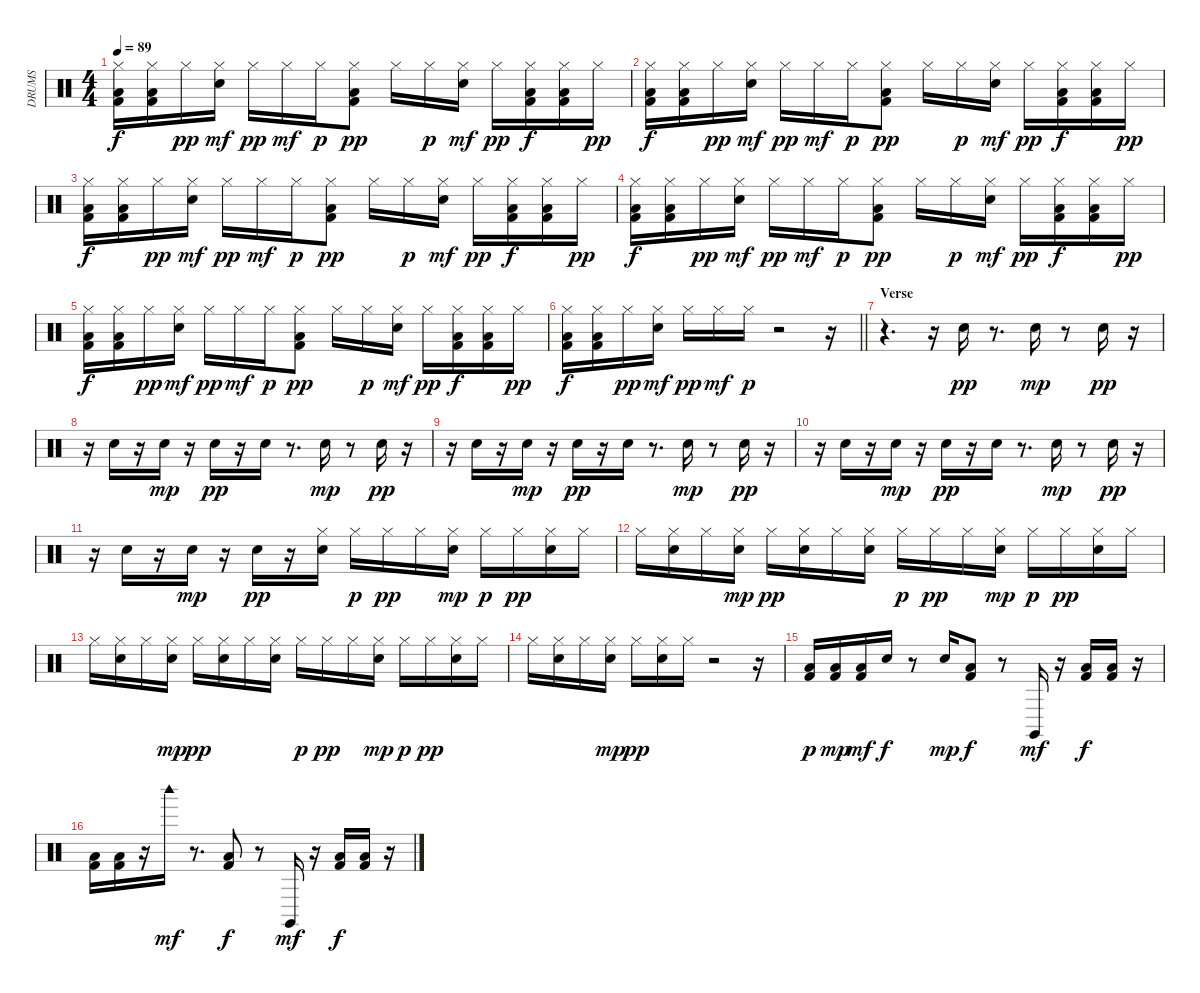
\track ("DRUMS" "DRUMS") {instrument percussion}
\staff {score}
\articulation defaults
\ts (4 4)
\tempo 89
\clef neutral
\ks c
("Kick (hit) 2" "Low Floor Tom (hit)" "Hi-Hat (closed)").16{dy f} ("Kick (hit) 2" "Low Floor Tom (hit)" "Hi-Hat (closed)").16 "Hi-Hat (closed)".16{dy pp} ("Hand Clap (hit)" "Hi-Hat (closed)").16{dy mf} "Hi-Hat (closed)".16{dy pp} "Hi-Hat (closed)".16{dy mf} "Hi-Hat (closed)".16{dy p} ("Hi-Hat (closed)" "Kick (hit) 2" "Low Floor Tom (hit)").8{dy pp} "Hi-Hat (closed)".16 "Hi-Hat (closed)".16{dy p} ("Hand Clap (hit)" "Hi-Hat (closed)").16{dy mf} "Hi-Hat (closed)".16{dy pp} ("Kick (hit) 2" "Low Floor Tom (hit)" "Hi-Hat (closed)").16{dy f} ("Kick (hit) 2" "Low Floor Tom (hit)" "Hi-Hat (closed)").16 "Hi-Hat (closed)".16{dy pp} |
("Kick (hit) 2" "Low Floor Tom (hit)" "Hi-Hat (closed)").16{dy f} ("Kick (hit) 2" "Low Floor Tom (hit)" "Hi-Hat (closed)").16 "Hi-Hat (closed)".16{dy pp} ("Hand Clap (hit)" "Hi-Hat (closed)").16{dy mf} "Hi-Hat (closed)".16{dy pp} "Hi-Hat (closed)".16{dy mf} "Hi-Hat (closed)".16{dy p} ("Hi-Hat (closed)" "Kick (hit) 2" "Low Floor Tom (hit)").8{dy pp} "Hi-Hat (closed)".16 "Hi-Hat (closed)".16{dy p} ("Hand Clap (hit)" "Hi-Hat (closed)").16{dy mf} "Hi-Hat (closed)".16{dy pp} ("Kick (hit) 2" "Low Floor Tom (hit)" "Hi-Hat (closed)").16{dy f} ("Kick (hit) 2" "Low Floor Tom (hit)" "Hi-Hat (closed)").16 "Hi-Hat (closed)".16{dy pp} |
("Kick (hit) 2" "Low Floor Tom (hit)" "Hi-Hat (closed)").16{dy f} ("Kick (hit) 2" "Low Floor Tom (hit)" "Hi-Hat (closed)").16 "Hi-Hat (closed)".16{dy pp} ("Hand Clap (hit)" "Hi-Hat (closed)").16{dy mf} "Hi-Hat (closed)".16{dy pp} "Hi-Hat (closed)".16{dy mf} "Hi-Hat (closed)".16{dy p} ("Hi-Hat (closed)" "Kick (hit) 2" "Low Floor Tom (hit)").8{dy pp} "Hi-Hat (closed)".16 "Hi-Hat (closed)".16{dy p} ("Hand Clap (hit)" "Hi-Hat (closed)").16{dy mf} "Hi-Hat (closed)".16{dy pp} ("Kick (hit) 2" "Low Floor Tom (hit)" "Hi-Hat (closed)").16{dy f} ("Kick (hit) 2" "Low Floor Tom (hit)" "Hi-Hat (closed)").16 "Hi-Hat (closed)".16{dy pp} |
("Kick (hit) 2" "Low Floor Tom (hit)" "Hi-Hat (closed)").16{dy f} ("Kick (hit) 2" "Low Floor Tom (hit)" "Hi-Hat (closed)").16 "Hi-Hat (closed)".16{dy pp} ("Hand Clap (hit)" "Hi-Hat (closed)").16{dy mf} "Hi-Hat (closed)".16{dy pp} "Hi-Hat (closed)".16{dy mf} "Hi-Hat (closed)".16{dy p} ("Hi-Hat (closed)" "Kick (hit) 2" "Low Floor Tom (hit)").8{dy pp} "Hi-Hat (closed)".16 "Hi-Hat (closed)".16{dy p} ("Hand Clap (hit)" "Hi-Hat (closed)").16{dy mf} "Hi-Hat (closed)".16{dy pp} ("Kick (hit) 2" "Low Floor Tom (hit)" "Hi-Hat (closed)").16{dy f} ("Kick (hit) 2" "Low Floor Tom (hit)" "Hi-Hat (closed)").16 "Hi-Hat (closed)".16{dy pp} |
("Kick (hit) 2" "Low Floor Tom (hit)" "Hi-Hat (closed)").16{dy f} ("Kick (hit) 2" "Low Floor Tom (hit)" "Hi-Hat (closed)").16 "Hi-Hat (closed)".16{dy pp} ("Hand Clap (hit)" "Hi-Hat (closed)").16{dy mf} "Hi-Hat (closed)".16{dy pp} "Hi-Hat (closed)".16{dy mf} "Hi-Hat (closed)".16{dy p} ("Hi-Hat (closed)" "Kick (hit) 2" "Low Floor Tom (hit)").8{dy pp} "Hi-Hat (closed)".16 "Hi-Hat (closed)".16{dy p} ("Hand Clap (hit)" "Hi-Hat (closed)").16{dy mf} "Hi-Hat (closed)".16{dy pp} ("Kick (hit) 2" "Low Floor Tom (hit)" "Hi-Hat (closed)").16{dy f} ("Kick (hit) 2" "Low Floor Tom (hit)" "Hi-Hat (closed)").16 "Hi-Hat (closed)".16{dy pp} |
\barLineRight lightlight
("Kick (hit) 2" "Low Floor Tom (hit)" "Hi-Hat (closed)").16{dy f} ("Kick (hit) 2" "Low Floor Tom (hit)" "Hi-Hat (closed)").16 "Hi-Hat (closed)".16{dy pp} ("Hand Clap (hit)" "Hi-Hat (closed)").16{dy mf} "Hi-Hat (closed)".16{dy pp} "Hi-Hat (closed)".16{dy mf} "Hi-Hat (closed)".16{dy p} r.2 r.16 |
\section ("" "Verse")
r.4{d} r.16 "Electric Snare (hit)".16{dy pp} r.8{d} "Hand Clap (hit)".16{dy mp} r.8 "Electric Snare (hit)".16{dy pp} r.16 |
r.16 "Electric Snare (hit)".16 r.16 "Hand Clap (hit)".16{dy mp} r.16 "Electric Snare (hit)".16{dy pp} r.16 "Electric Snare (hit)".16 r.8{d} "Hand Clap (hit)".16{dy mp} r.8 "Electric Snare (hit)".16{dy pp} r.16 |
r.16 "Electric Snare (hit)".16 r.16 "Hand Clap (hit)".16{dy mp} r.16 "Electric Snare (hit)".16{dy pp} r.16 "Electric Snare (hit)".16 r.8{d} "Hand Clap (hit)".16{dy mp} r.8 "Electric Snare (hit)".16{dy pp} r.16 |
r.16 "Electric Snare (hit)".16 r.16 "Hand Clap (hit)".16{dy mp} r.16 "Electric Snare (hit)".16{dy pp} r.16 "Electric Snare (hit)".16 r.8{d} "Hand Clap (hit)".16{dy mp} r.8 "Electric Snare (hit)".16{dy pp} r.16 |
r.16 "Electric Snare (hit)".16 r.16 "Hand Clap (hit)".16{dy mp} r.16 "Electric Snare (hit)".16{dy pp} r.16 ("Electric Snare (hit)" "Hi-Hat (closed)").16 "Hi-Hat (closed)".16{dy p} "Hi-Hat (closed)".16{dy pp} "Hi-Hat (closed)".16 ("Hand Clap (hit)" "Hi-Hat (closed)").16{dy mp} "Hi-Hat (closed)".16{dy p} "Hi-Hat (closed)".16{dy pp} ("Electric Snare (hit)" "Hi-Hat (closed)").16 "Hi-Hat (closed)".16 |
"Hi-Hat (closed)".16 ("Electric Snare (hit)" "Hi-Hat (closed)").16 "Hi-Hat (closed)".16 ("Hand Clap (hit)" "Hi-Hat (closed)").16{dy mp} "Hi-Hat (closed)".16{dy pp} ("Electric Snare (hit)" "Hi-Hat (closed)").16 "Hi-Hat (closed)".16 ("Electric Snare (hit)" "Hi-Hat (closed)").16 "Hi-Hat (closed)".16{dy p} "Hi-Hat (closed)".16{dy pp} "Hi-Hat (closed)".16 ("Hand Clap (hit)" "Hi-Hat (closed)").16{dy mp} "Hi-Hat (closed)".16{dy p} "Hi-Hat (closed)".16{dy pp} ("Electric Snare (hit)" "Hi-Hat (closed)").16 "Hi-Hat (closed)".16 |
"Hi-Hat (closed)".16 ("Electric Snare (hit)" "Hi-Hat (closed)").16 "Hi-Hat (closed)".16 ("Hand Clap (hit)" "Hi-Hat (closed)").16{dy mp} "Hi-Hat (closed)".16{dy pp} ("Electric Snare (hit)" "Hi-Hat (closed)").16 "Hi-Hat (closed)".16 ("Electric Snare (hit)" "Hi-Hat (closed)").16 "Hi-Hat (closed)".16{dy p} "Hi-Hat (closed)".16{dy pp} "Hi-Hat (closed)".16 ("Hand Clap (hit)" "Hi-Hat (closed)").16{dy mp} "Hi-Hat (closed)".16{dy p} "Hi-Hat (closed)".16{dy pp} ("Electric Snare (hit)" "Hi-Hat (closed)").16 "Hi-Hat (closed)".16 |
"Hi-Hat (closed)".16 ("Electric Snare (hit)" "Hi-Hat (closed)").16 "Hi-Hat (closed)".16 ("Hand Clap (hit)" "Hi-Hat (closed)").16{dy mp} "Hi-Hat (closed)".16{dy pp} ("Electric Snare (hit)" "Hi-Hat (closed)").16 "Hi-Hat (closed)".16 r.2 r.16 |
("Kick (hit) 2" "Low Floor Tom (hit)").16{dy p} ("Kick (hit) 2" "Low Floor Tom (hit)").16{dy mp} ("Kick (hit) 2" "Low Floor Tom (hit)").16{dy mf} "Hand Clap (hit)".16{dy f} r.8 "Hand Clap (hit)".16{dy mp} ("Kick (hit) 2" "Low Floor Tom (hit)").8{dy f} r.8 "Claves (hit)".16{dy mf} r.16 ("Kick (hit) 2" "Low Floor Tom (hit)").16{dy f} ("Kick (hit) 2" "Low Floor Tom (hit)").16 r.16 |
("Kick (hit) 2" "Low Floor Tom (hit)").16 ("Kick (hit) 2" "Low Floor Tom (hit)").16 r.16 "Woodblock high (hit)".16{dy mf} r.8{d} ("Kick (hit) 2" "Low Floor Tom (hit)").8{dy f} r.8 "Claves (hit)".16{dy mf} r.16 ("Kick (hit) 2" "Low Floor Tom (hit)").16{dy f} ("Kick (hit) 2" "Low Floor Tom (hit)").16 r.16
